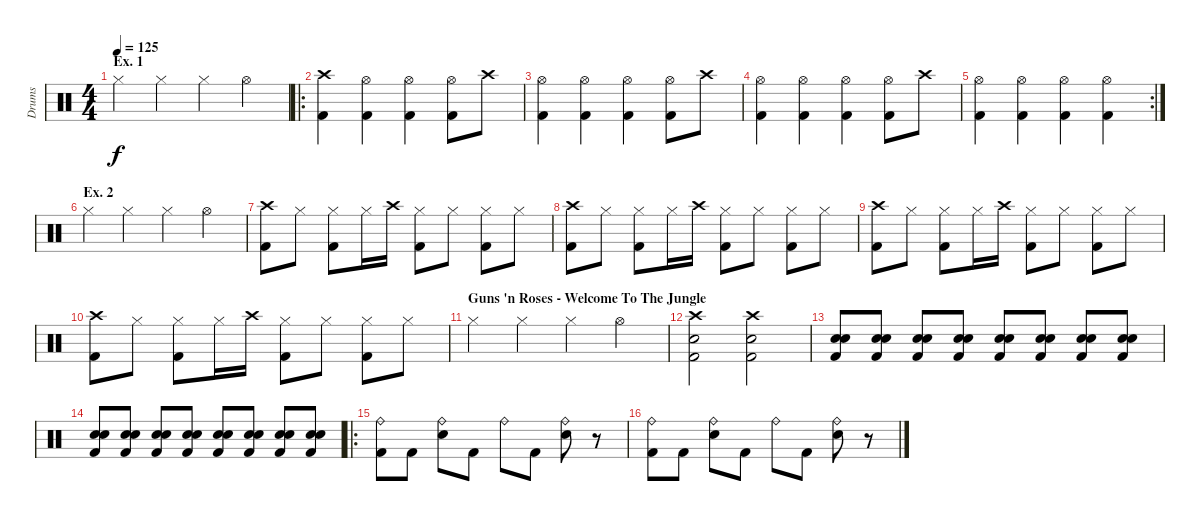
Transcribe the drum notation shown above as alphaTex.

\track ("Drums" "Drums") {instrument percussion}
\staff {score}
\articulation defaults
\ts (4 4)
\section ("" "Ex. 1")
\tempo 125
\clef neutral
\ks c "Hi-Hat (closed)".4{dy f} "Hi-Hat (closed)".4 "Hi-Hat (closed)".4 "Hi-Hat (open)".4
|
\ro
("Crash high (hit)" "Kick (hit) 2").4 ("Hi-Hat (open)" "Kick (hit) 2").4 ("Hi-Hat (open)" "Kick (hit) 2").4 ("Hi-Hat (open)" "Kick (hit) 2").8 "Crash high (hit)".8 |
("Hi-Hat (open)" "Kick (hit) 2").4 ("Hi-Hat (open)" "Kick (hit) 2").4 ("Hi-Hat (open)" "Kick (hit) 2").4 ("Hi-Hat (open)" "Kick (hit) 2").8 "Crash high (hit)".8 |
("Hi-Hat (open)" "Kick (hit) 2").4 ("Hi-Hat (open)" "Kick (hit) 2").4 ("Hi-Hat (open)" "Kick (hit) 2").4 ("Hi-Hat (open)" "Kick (hit) 2").8 "Crash high (hit)".8 |
\rc 2
("Hi-Hat (open)" "Kick (hit) 2").4 ("Hi-Hat (open)" "Kick (hit) 2").4 ("Hi-Hat (open)" "Kick (hit) 2").4 ("Hi-Hat (open)" "Kick (hit) 2").4 |
\section ("" "Ex. 2")
"Hi-Hat (closed)".4 "Hi-Hat (closed)".4 "Hi-Hat (closed)".4 "Hi-Hat (open)".4 |
("Crash high (hit)" "Kick (hit) 2").8 "Hi-Hat (closed)".8 ("Hi-Hat (closed)" "Kick (hit) 2").8 "Hi-Hat (closed)".16 "Crash high (hit)".16 ("Hi-Hat (closed)" "Kick (hit) 2").8 "Hi-Hat (closed)".8 ("Hi-Hat (closed)" "Kick (hit) 2").8 "Hi-Hat (closed)".8 |
("Crash high (hit)" "Kick (hit) 2").8 "Hi-Hat (closed)".8 ("Hi-Hat (closed)" "Kick (hit) 2").8 "Hi-Hat (closed)".16 "Crash high (hit)".16 ("Hi-Hat (closed)" "Kick (hit) 2").8 "Hi-Hat (closed)".8 ("Hi-Hat (closed)" "Kick (hit) 2").8 "Hi-Hat (closed)".8 |
("Crash high (hit)" "Kick (hit) 2").8 "Hi-Hat (closed)".8 ("Hi-Hat (closed)" "Kick (hit) 2").8 "Hi-Hat (closed)".16 "Crash high (hit)".16 ("Hi-Hat (closed)" "Kick (hit) 2").8 "Hi-Hat (closed)".8 ("Hi-Hat (closed)" "Kick (hit) 2").8 "Hi-Hat (closed)".8 |
("Crash high (hit)" "Kick (hit) 2").8 "Hi-Hat (closed)".8 ("Hi-Hat (closed)" "Kick (hit) 2").8 "Hi-Hat (closed)".16 "Crash high (hit)".16 ("Hi-Hat (closed)" "Kick (hit) 2").8 "Hi-Hat (closed)".8 ("Hi-Hat (closed)" "Kick (hit) 2").8 "Hi-Hat (closed)".8 |
\section ("" "Guns 'n Roses - Welcome To The Jungle")
"Hi-Hat (closed)".4 "Hi-Hat (closed)".4 "Hi-Hat (closed)".4 "Hi-Hat (open)".4 |
("Kick (hit) 2" "Electric Snare (hit)" "Crash high (hit)").2 ("Kick (hit) 2" "Electric Snare (hit)" "Crash high (hit)").2 |
("Electric Snare (hit)" "Snare (hit) 2" "Kick (hit) 2").8 ("Electric Snare (hit)" "Snare (hit) 2" "Kick (hit) 2").8 ("Electric Snare (hit)" "Snare (hit) 2" "Kick (hit) 2").8 ("Electric Snare (hit)" "Snare (hit) 2" "Kick (hit) 2").8 ("Electric Snare (hit)" "Snare (hit) 2" "Kick (hit) 2").8 ("Electric Snare (hit)" "Snare (hit) 2" "Kick (hit) 2").8 ("Electric Snare (hit)" "Snare (hit) 2" "Kick (hit) 2").8 ("Electric Snare (hit)" "Snare (hit) 2" "Kick (hit) 2").8 |
("Electric Snare (hit)" "Snare (hit) 2" "Kick (hit) 2").8 ("Electric Snare (hit)" "Snare (hit) 2" "Kick (hit) 2").8 ("Electric Snare (hit)" "Snare (hit) 2" "Kick (hit) 2").8 ("Electric Snare (hit)" "Snare (hit) 2" "Kick (hit) 2").8 ("Electric Snare (hit)" "Snare (hit) 2" "Kick (hit) 2").8 ("Electric Snare (hit)" "Snare (hit) 2" "Kick (hit) 2").8 ("Electric Snare (hit)" "Snare (hit) 2" "Kick (hit) 2").8 ("Electric Snare (hit)" "Snare (hit) 2" "Kick (hit) 2").8 |
\ro
("Ride (bell)" "Kick (hit) 2").8 "Kick (hit) 2".8 ("Ride (bell)" "Electric Snare (hit)").8 "Kick (hit) 2".8 "Ride (bell)".8 "Kick (hit) 2".8 ("Ride (bell)" "Electric Snare (hit)").8 r.8 |
("Ride (bell)" "Kick (hit) 2").8 "Kick (hit) 2".8 ("Ride (bell)" "Electric Snare (hit)").8 "Kick (hit) 2".8 "Ride (bell)".8 "Kick (hit) 2".8 ("Ride (bell)" "Electric Snare (hit)").8 r.8
